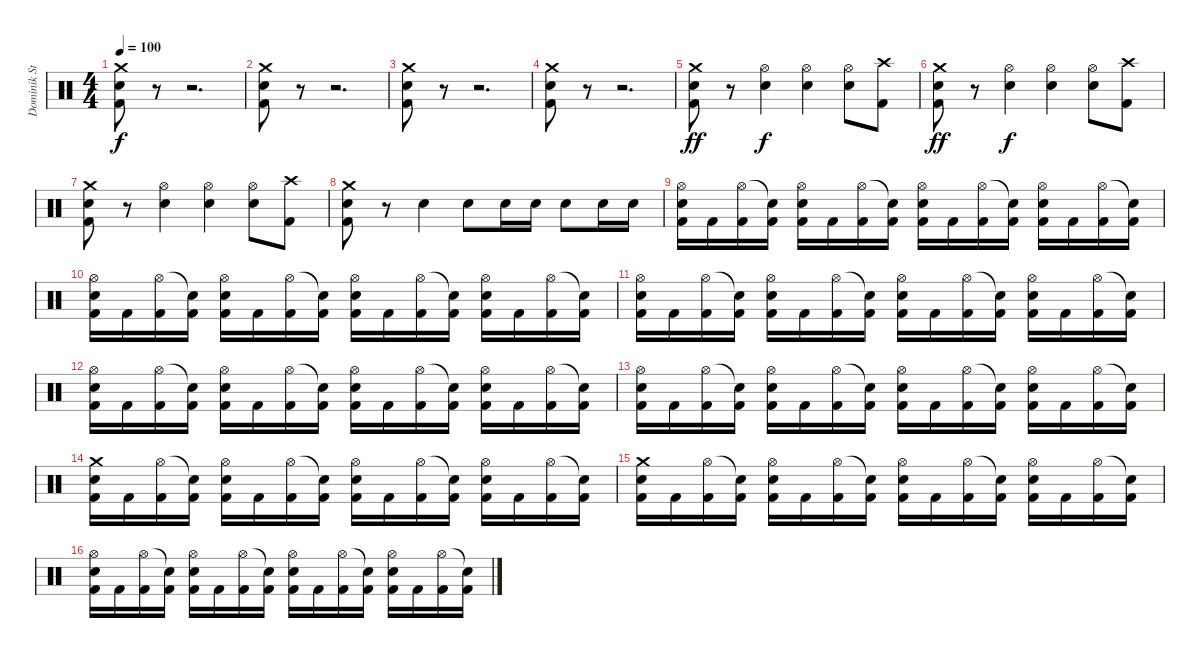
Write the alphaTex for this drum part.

\track ("Dominik Storch" "Dominik St") {instrument percussion}
\staff {score}
\articulation defaults
\ts (4 4)
\tempo 100
\clef neutral
\ks c
("Crash medium (hit)" "Electric Snare (hit)" "Kick (hit) 2").8{dy f} r.8 r.2{d} |
("Crash medium (hit)" "Electric Snare (hit)" "Kick (hit) 2").8 r.8 r.2{d} |
("Crash medium (hit)" "Electric Snare (hit)" "Kick (hit) 2").8 r.8 r.2{d} |
("Crash medium (hit)" "Electric Snare (hit)" "Kick (hit) 2").8 r.8 r.2{d} |
("Crash medium (hit)" "Electric Snare (hit)" "Kick (hit) 2").8{dy ff} r.8 ("Hi-Hat (open)" "Electric Snare (hit)").4{dy f} ("Hi-Hat (open)" "Electric Snare (hit)").4 ("Hi-Hat (open)" "Electric Snare (hit)").8 ("Crash high (hit)" "Kick (hit) 2").8 |
("Crash medium (hit)" "Electric Snare (hit)" "Kick (hit) 2").8{dy ff} r.8 ("Hi-Hat (open)" "Electric Snare (hit)").4{dy f} ("Hi-Hat (open)" "Electric Snare (hit)").4 ("Hi-Hat (open)" "Electric Snare (hit)").8 ("Crash high (hit)" "Kick (hit) 2").8 |
("Crash medium (hit)" "Electric Snare (hit)" "Kick (hit) 2").8 r.8 ("Hi-Hat (open)" "Electric Snare (hit)").4 ("Hi-Hat (open)" "Electric Snare (hit)").4 ("Hi-Hat (open)" "Electric Snare (hit)").8 ("Crash high (hit)" "Kick (hit) 2").8 |
("Crash medium (hit)" "Electric Snare (hit)" "Kick (hit) 2").8 r.8 "Electric Snare (hit)".4 "Electric Snare (hit)".8 "Electric Snare (hit)".16 "Electric Snare (hit)".16 "Electric Snare (hit)".8 "Electric Snare (hit)".16 "Electric Snare (hit)".16 |
("Hi-Hat (open)" "Electric Snare (hit)" "Kick (hit) 2").16 "Kick (hit) 2".16 ("Hi-Hat (open)" "Kick (hit) 2").16 ("Snare (hit)"{t} "Kick (hit) 2").16 ("Hi-Hat (open)" "Electric Snare (hit)" "Kick (hit) 2").16 "Kick (hit) 2".16 ("Hi-Hat (open)" "Kick (hit) 2").16 ("Snare (hit)"{t} "Kick (hit) 2").16 ("Hi-Hat (open)" "Electric Snare (hit)" "Kick (hit) 2").16 "Kick (hit) 2".16 ("Hi-Hat (open)" "Kick (hit) 2").16 ("Snare (hit)"{t} "Kick (hit) 2").16 ("Hi-Hat (open)" "Electric Snare (hit)" "Kick (hit) 2").16 "Kick (hit) 2".16 ("Hi-Hat (open)" "Kick (hit) 2").16 ("Snare (hit)"{t} "Kick (hit) 2").16 |
("Hi-Hat (open)" "Electric Snare (hit)" "Kick (hit) 2").16 "Kick (hit) 2".16 ("Hi-Hat (open)" "Kick (hit) 2").16 ("Snare (hit)"{t} "Kick (hit) 2").16 ("Hi-Hat (open)" "Electric Snare (hit)" "Kick (hit) 2").16 "Kick (hit) 2".16 ("Hi-Hat (open)" "Kick (hit) 2").16 ("Snare (hit)"{t} "Kick (hit) 2").16 ("Hi-Hat (open)" "Electric Snare (hit)" "Kick (hit) 2").16 "Kick (hit) 2".16 ("Hi-Hat (open)" "Kick (hit) 2").16 ("Snare (hit)"{t} "Kick (hit) 2").16 ("Hi-Hat (open)" "Electric Snare (hit)" "Kick (hit) 2").16 "Kick (hit) 2".16 ("Hi-Hat (open)" "Kick (hit) 2").16 ("Snare (hit)"{t} "Kick (hit) 2").16 |
("Hi-Hat (open)" "Electric Snare (hit)" "Kick (hit) 2").16 "Kick (hit) 2".16 ("Hi-Hat (open)" "Kick (hit) 2").16 ("Snare (hit)"{t} "Kick (hit) 2").16 ("Hi-Hat (open)" "Electric Snare (hit)" "Kick (hit) 2").16 "Kick (hit) 2".16 ("Hi-Hat (open)" "Kick (hit) 2").16 ("Snare (hit)"{t} "Kick (hit) 2").16 ("Hi-Hat (open)" "Electric Snare (hit)" "Kick (hit) 2").16 "Kick (hit) 2".16 ("Hi-Hat (open)" "Kick (hit) 2").16 ("Snare (hit)"{t} "Kick (hit) 2").16 ("Hi-Hat (open)" "Electric Snare (hit)" "Kick (hit) 2").16 "Kick (hit) 2".16 ("Hi-Hat (open)" "Kick (hit) 2").16 ("Snare (hit)"{t} "Kick (hit) 2").16 |
("Hi-Hat (open)" "Electric Snare (hit)" "Kick (hit) 2").16 "Kick (hit) 2".16 ("Hi-Hat (open)" "Kick (hit) 2").16 ("Snare (hit)"{t} "Kick (hit) 2").16 ("Hi-Hat (open)" "Electric Snare (hit)" "Kick (hit) 2").16 "Kick (hit) 2".16 ("Hi-Hat (open)" "Kick (hit) 2").16 ("Snare (hit)"{t} "Kick (hit) 2").16 ("Hi-Hat (open)" "Electric Snare (hit)" "Kick (hit) 2").16 "Kick (hit) 2".16 ("Hi-Hat (open)" "Kick (hit) 2").16 ("Snare (hit)"{t} "Kick (hit) 2").16 ("Hi-Hat (open)" "Electric Snare (hit)" "Kick (hit) 2").16 "Kick (hit) 2".16 ("Hi-Hat (open)" "Kick (hit) 2").16 ("Snare (hit)"{t} "Kick (hit) 2").16 |
("Hi-Hat (open)" "Electric Snare (hit)" "Kick (hit) 2").16 "Kick (hit) 2".16 ("Hi-Hat (open)" "Kick (hit) 2").16 ("Snare (hit)"{t} "Kick (hit) 2").16 ("Hi-Hat (open)" "Electric Snare (hit)" "Kick (hit) 2").16 "Kick (hit) 2".16 ("Hi-Hat (open)" "Kick (hit) 2").16 ("Snare (hit)"{t} "Kick (hit) 2").16 ("Hi-Hat (open)" "Electric Snare (hit)" "Kick (hit) 2").16 "Kick (hit) 2".16 ("Hi-Hat (open)" "Kick (hit) 2").16 ("Snare (hit)"{t} "Kick (hit) 2").16 ("Hi-Hat (open)" "Electric Snare (hit)" "Kick (hit) 2").16 "Kick (hit) 2".16 ("Hi-Hat (open)" "Kick (hit) 2").16 ("Snare (hit)"{t} "Kick (hit) 2").16 |
("Crash medium (hit)" "Electric Snare (hit)" "Kick (hit) 2").16 "Kick (hit) 2".16 ("Hi-Hat (open)" "Kick (hit) 2").16 ("Snare (hit)"{t} "Kick (hit) 2").16 ("Hi-Hat (open)" "Electric Snare (hit)" "Kick (hit) 2").16 "Kick (hit) 2".16 ("Hi-Hat (open)" "Kick (hit) 2").16 ("Snare (hit)"{t} "Kick (hit) 2").16 ("Hi-Hat (open)" "Electric Snare (hit)" "Kick (hit) 2").16 "Kick (hit) 2".16 ("Hi-Hat (open)" "Kick (hit) 2").16 ("Snare (hit)"{t} "Kick (hit) 2").16 ("Hi-Hat (open)" "Electric Snare (hit)" "Kick (hit) 2").16 "Kick (hit) 2".16 ("Hi-Hat (open)" "Kick (hit) 2").16 ("Snare (hit)"{t} "Kick (hit) 2").16 |
("Crash medium (hit)" "Electric Snare (hit)" "Kick (hit) 2").16 "Kick (hit) 2".16 ("Hi-Hat (open)" "Kick (hit) 2").16 ("Snare (hit)"{t} "Kick (hit) 2").16 ("Hi-Hat (open)" "Electric Snare (hit)" "Kick (hit) 2").16 "Kick (hit) 2".16 ("Hi-Hat (open)" "Kick (hit) 2").16 ("Snare (hit)"{t} "Kick (hit) 2").16 ("Hi-Hat (open)" "Electric Snare (hit)" "Kick (hit) 2").16 "Kick (hit) 2".16 ("Hi-Hat (open)" "Kick (hit) 2").16 ("Snare (hit)"{t} "Kick (hit) 2").16 ("Hi-Hat (open)" "Electric Snare (hit)" "Kick (hit) 2").16 "Kick (hit) 2".16 ("Hi-Hat (open)" "Kick (hit) 2").16 ("Snare (hit)"{t} "Kick (hit) 2").16 |
("Hi-Hat (open)" "Electric Snare (hit)" "Kick (hit) 2").16 "Kick (hit) 2".16 ("Hi-Hat (open)" "Kick (hit) 2").16 ("Snare (hit)"{t} "Kick (hit) 2").16 ("Hi-Hat (open)" "Electric Snare (hit)" "Kick (hit) 2").16 "Kick (hit) 2".16 ("Hi-Hat (open)" "Kick (hit) 2").16 ("Snare (hit)"{t} "Kick (hit) 2").16 ("Hi-Hat (open)" "Electric Snare (hit)" "Kick (hit) 2").16 "Kick (hit) 2".16 ("Hi-Hat (open)" "Kick (hit) 2").16 ("Snare (hit)"{t} "Kick (hit) 2").16 ("Hi-Hat (open)" "Electric Snare (hit)" "Kick (hit) 2").16 "Kick (hit) 2".16 ("Hi-Hat (open)" "Kick (hit) 2").16 ("Snare (hit)"{t} "Kick (hit) 2").16
